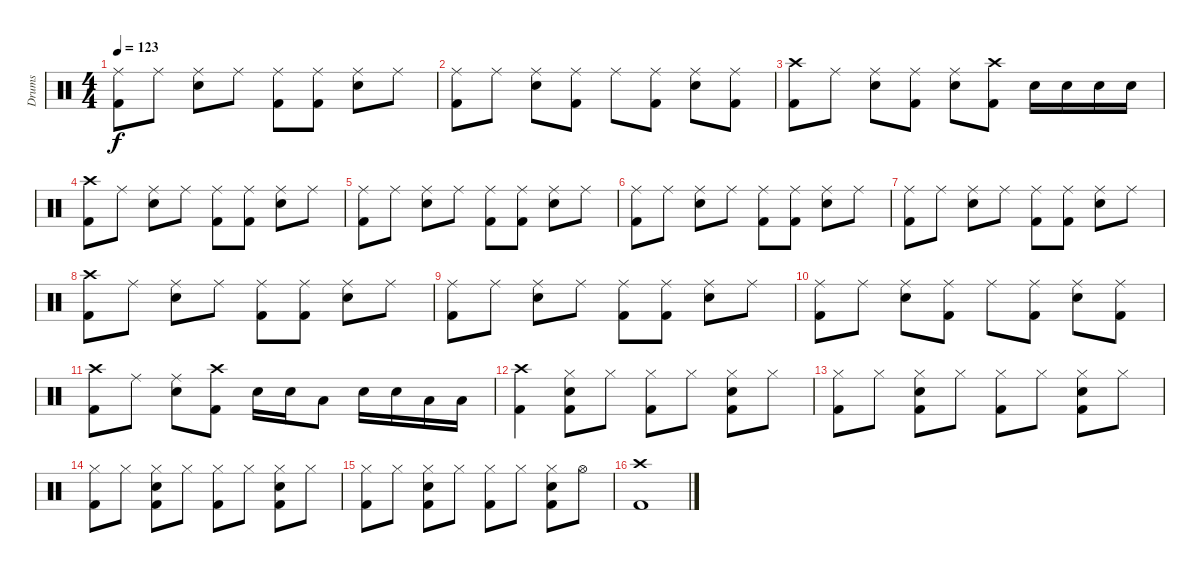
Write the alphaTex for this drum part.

\track ("Drums" "Drums") {instrument percussion}
\staff {score}
\articulation defaults
\ts (4 4)
\tempo 123
\clef neutral
\ks c
("Ride (middle)" "Kick (hit) 2").8{dy f} "Ride (middle)".8 ("Ride (middle)" "Snare (hit) 2").8 "Ride (middle)".8 ("Ride (middle)" "Kick (hit) 2").8 ("Ride (middle)" "Kick (hit) 2").8 ("Ride (middle)" "Snare (hit) 2").8 "Ride (middle)".8 |
("Ride (middle)" "Kick (hit) 2").8 "Ride (middle)".8 ("Ride (middle)" "Snare (hit) 2").8 ("Ride (middle)" "Kick (hit) 2").8 "Ride (middle)".8 ("Ride (middle)" "Kick (hit) 2").8 ("Ride (middle)" "Snare (hit) 2").8 ("Ride (middle)" "Kick (hit) 2").8 |
("Crash high (hit)" "Kick (hit) 2").8 "Ride (middle)".8 ("Ride (middle)" "Snare (hit) 2").8 ("Ride (middle)" "Kick (hit) 2").8 ("Ride (middle)" "Snare (hit) 2").8 ("Crash high (hit)" "Kick (hit) 2").8 "Snare (hit) 2".16 "Snare (hit) 2".16 "Snare (hit) 2".16 "Snare (hit) 2".16 |
("Crash high (hit)" "Kick (hit) 2").8 "Ride (middle)".8 ("Ride (middle)" "Snare (hit) 2").8 "Ride (middle)".8 ("Ride (middle)" "Kick (hit) 2").8 ("Ride (middle)" "Kick (hit) 2").8 ("Ride (middle)" "Snare (hit) 2").8 "Ride (middle)".8 |
("Ride (middle)" "Kick (hit) 2").8 "Ride (middle)".8 ("Ride (middle)" "Snare (hit) 2").8 "Ride (middle)".8 ("Ride (middle)" "Kick (hit) 2").8 ("Ride (middle)" "Kick (hit) 2").8 ("Ride (middle)" "Snare (hit) 2").8 "Ride (middle)".8 |
("Ride (middle)" "Kick (hit) 2").8 "Ride (middle)".8 ("Ride (middle)" "Snare (hit) 2").8 "Ride (middle)".8 ("Ride (middle)" "Kick (hit) 2").8 ("Ride (middle)" "Kick (hit) 2").8 ("Ride (middle)" "Snare (hit) 2").8 "Ride (middle)".8 |
("Ride (middle)" "Kick (hit) 2").8 "Ride (middle)".8 ("Ride (middle)" "Snare (hit) 2").8 "Ride (middle)".8 ("Ride (middle)" "Kick (hit) 2").8 ("Ride (middle)" "Kick (hit) 2").8 ("Ride (middle)" "Snare (hit) 2").8 "Ride (middle)".8 |
("Crash high (hit)" "Kick (hit) 2").8 "Ride (middle)".8 ("Ride (middle)" "Snare (hit) 2").8 "Ride (middle)".8 ("Ride (middle)" "Kick (hit) 2").8 ("Ride (middle)" "Kick (hit) 2").8 ("Ride (middle)" "Snare (hit) 2").8 "Ride (middle)".8 |
("Ride (middle)" "Kick (hit) 2").8 "Ride (middle)".8 ("Ride (middle)" "Snare (hit) 2").8 "Ride (middle)".8 ("Ride (middle)" "Kick (hit) 2").8 ("Ride (middle)" "Kick (hit) 2").8 ("Ride (middle)" "Snare (hit) 2").8 "Ride (middle)".8 |
("Ride (middle)" "Kick (hit) 2").8 "Ride (middle)".8 ("Ride (middle)" "Snare (hit) 2").8 ("Ride (middle)" "Kick (hit) 2").8 "Ride (middle)".8 ("Ride (middle)" "Kick (hit) 2").8 ("Ride (middle)" "Snare (hit) 2").8 ("Ride (middle)" "Kick (hit) 2").8 |
("Crash high (hit)" "Kick (hit) 2").8 "Ride (middle)".8 ("Ride (middle)" "Snare (hit) 2").8 ("Crash high (hit)" "Kick (hit) 2").8 "Snare (hit) 2".16 "Snare (hit) 2".16 "Low Tom (hit)".8 "Snare (hit) 2".16 "Snare (hit) 2".16 "Low Tom (hit)".16 "Low Tom (hit)".16 |
("Crash high (hit)" "Kick (hit) 2").4 ("Hi-Hat (closed)" "Snare (hit) 2" "Kick (hit) 2").8 "Hi-Hat (closed)".8 ("Hi-Hat (closed)" "Kick (hit) 2").8 "Hi-Hat (closed)".8 ("Hi-Hat (closed)" "Snare (hit) 2" "Kick (hit) 2").8 "Hi-Hat (closed)".8 |
("Hi-Hat (closed)" "Kick (hit) 2").8 "Hi-Hat (closed)".8 ("Hi-Hat (closed)" "Snare (hit) 2" "Kick (hit) 2").8 "Hi-Hat (closed)".8 ("Hi-Hat (closed)" "Kick (hit) 2").8 "Hi-Hat (closed)".8 ("Hi-Hat (closed)" "Snare (hit) 2" "Kick (hit) 2").8 "Hi-Hat (closed)".8 |
("Hi-Hat (closed)" "Kick (hit) 2").8 "Hi-Hat (closed)".8 ("Hi-Hat (closed)" "Snare (hit) 2" "Kick (hit) 2").8 "Hi-Hat (closed)".8 ("Hi-Hat (closed)" "Kick (hit) 2").8 "Hi-Hat (closed)".8 ("Hi-Hat (closed)" "Snare (hit) 2" "Kick (hit) 2").8 "Hi-Hat (closed)".8 |
("Hi-Hat (closed)" "Kick (hit) 2").8 "Hi-Hat (closed)".8 ("Hi-Hat (closed)" "Snare (hit) 2" "Kick (hit) 2").8 "Hi-Hat (closed)".8 ("Hi-Hat (closed)" "Kick (hit) 2").8 "Hi-Hat (closed)".8 ("Hi-Hat (closed)" "Snare (hit) 2" "Kick (hit) 2").8 "Hi-Hat (open)".8 |
("Crash high (hit)" "Kick (hit) 2").1
